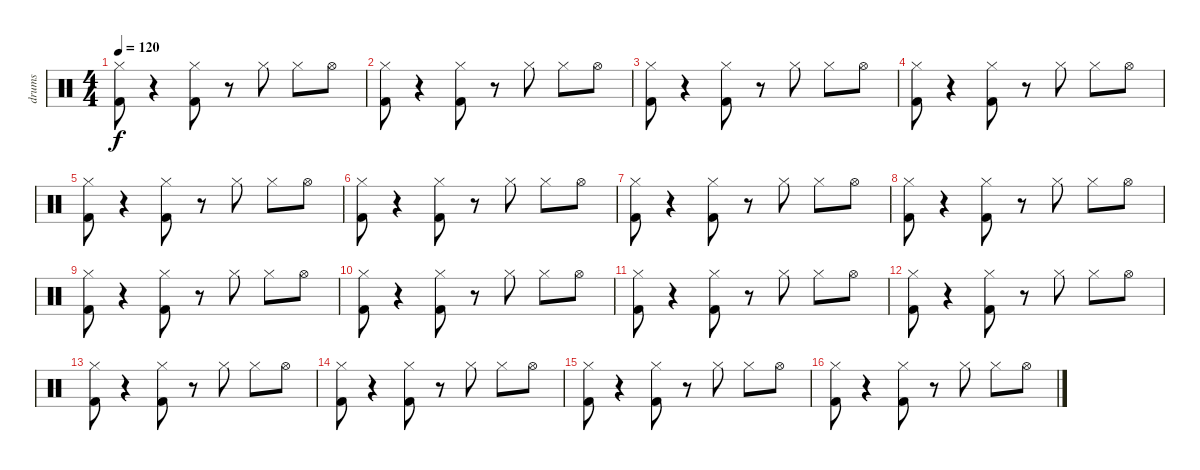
\track ("drums" "drums") {instrument percussion}
\staff {score}
\articulation defaults
\ts (4 4)
\tempo 120
\clef neutral
\ks c
("Kick (hit) 2" "Hi-Hat (closed)").8{dy f} r.4 ("Kick (hit) 2" "Hi-Hat (closed)").8 r.8 "Hi-Hat (closed)".8 "Hi-Hat (closed)".8 "Hi-Hat (open)".8 |
("Kick (hit) 2" "Hi-Hat (closed)").8 r.4 ("Kick (hit) 2" "Hi-Hat (closed)").8 r.8 "Hi-Hat (closed)".8 "Hi-Hat (closed)".8 "Hi-Hat (open)".8 |
("Kick (hit) 2" "Hi-Hat (closed)").8 r.4 ("Kick (hit) 2" "Hi-Hat (closed)").8 r.8 "Hi-Hat (closed)".8 "Hi-Hat (closed)".8 "Hi-Hat (open)".8 |
("Kick (hit) 2" "Hi-Hat (closed)").8 r.4 ("Kick (hit) 2" "Hi-Hat (closed)").8 r.8 "Hi-Hat (closed)".8 "Hi-Hat (closed)".8 "Hi-Hat (open)".8 |
("Kick (hit) 2" "Hi-Hat (closed)").8 r.4 ("Kick (hit) 2" "Hi-Hat (closed)").8 r.8 "Hi-Hat (closed)".8 "Hi-Hat (closed)".8 "Hi-Hat (open)".8 |
("Kick (hit) 2" "Hi-Hat (closed)").8 r.4 ("Kick (hit) 2" "Hi-Hat (closed)").8 r.8 "Hi-Hat (closed)".8 "Hi-Hat (closed)".8 "Hi-Hat (open)".8 |
("Kick (hit) 2" "Hi-Hat (closed)").8 r.4 ("Kick (hit) 2" "Hi-Hat (closed)").8 r.8 "Hi-Hat (closed)".8 "Hi-Hat (closed)".8 "Hi-Hat (open)".8 |
("Kick (hit) 2" "Hi-Hat (closed)").8 r.4 ("Kick (hit) 2" "Hi-Hat (closed)").8 r.8 "Hi-Hat (closed)".8 "Hi-Hat (closed)".8 "Hi-Hat (open)".8 |
("Kick (hit) 2" "Hi-Hat (closed)").8 r.4 ("Kick (hit) 2" "Hi-Hat (closed)").8 r.8 "Hi-Hat (closed)".8 "Hi-Hat (closed)".8 "Hi-Hat (open)".8 |
("Kick (hit) 2" "Hi-Hat (closed)").8 r.4 ("Kick (hit) 2" "Hi-Hat (closed)").8 r.8 "Hi-Hat (closed)".8 "Hi-Hat (closed)".8 "Hi-Hat (open)".8 |
("Kick (hit) 2" "Hi-Hat (closed)").8 r.4 ("Kick (hit) 2" "Hi-Hat (closed)").8 r.8 "Hi-Hat (closed)".8 "Hi-Hat (closed)".8 "Hi-Hat (open)".8 |
("Kick (hit) 2" "Hi-Hat (closed)").8 r.4 ("Kick (hit) 2" "Hi-Hat (closed)").8 r.8 "Hi-Hat (closed)".8 "Hi-Hat (closed)".8 "Hi-Hat (open)".8 |
("Kick (hit) 2" "Hi-Hat (closed)").8 r.4 ("Kick (hit) 2" "Hi-Hat (closed)").8 r.8 "Hi-Hat (closed)".8 "Hi-Hat (closed)".8 "Hi-Hat (open)".8 |
("Kick (hit) 2" "Hi-Hat (closed)").8 r.4 ("Kick (hit) 2" "Hi-Hat (closed)").8 r.8 "Hi-Hat (closed)".8 "Hi-Hat (closed)".8 "Hi-Hat (open)".8 |
("Kick (hit) 2" "Hi-Hat (closed)").8 r.4 ("Kick (hit) 2" "Hi-Hat (closed)").8 r.8 "Hi-Hat (closed)".8 "Hi-Hat (closed)".8 "Hi-Hat (open)".8 |
("Kick (hit) 2" "Hi-Hat (closed)").8 r.4 ("Kick (hit) 2" "Hi-Hat (closed)").8 r.8 "Hi-Hat (closed)".8 "Hi-Hat (closed)".8 "Hi-Hat (open)".8
